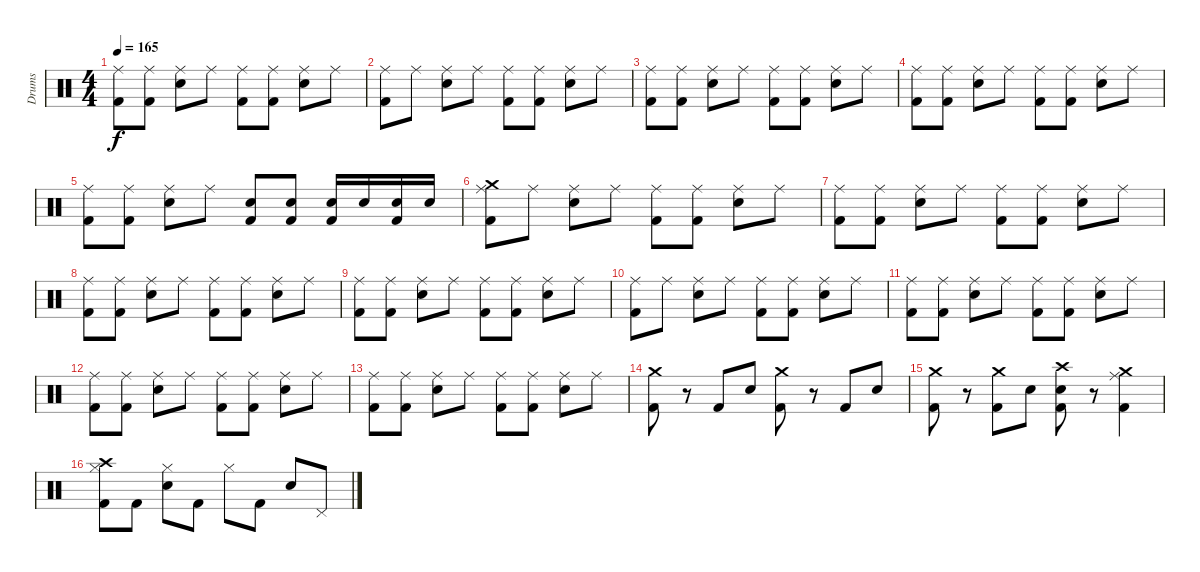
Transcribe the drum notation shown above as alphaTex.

\track ("Drums" "Drums") {instrument percussion}
\staff {score}
\articulation defaults
\ts (4 4)
\tempo 165
\clef neutral
\ks c
("Kick (hit) 2" "Ride (middle)").8{dy f} ("Kick (hit) 2" "Ride (middle)").8 ("Snare (hit) 2" "Ride (middle)").8 "Ride (middle)".8 ("Kick (hit) 2" "Ride (middle)").8 ("Kick (hit) 2" "Ride (middle)").8 ("Snare (hit) 2" "Ride (middle)").8 "Ride (middle)".8 |
("Kick (hit) 2" "Ride (middle)").8 "Ride (middle)".8 ("Snare (hit) 2" "Ride (middle)").8 "Ride (middle)".8 ("Kick (hit) 2" "Ride (middle)").8 ("Kick (hit) 2" "Ride (middle)").8 ("Snare (hit) 2" "Ride (middle)").8 "Ride (middle)".8 |
("Kick (hit) 2" "Ride (middle)").8 ("Kick (hit) 2" "Ride (middle)").8 ("Snare (hit) 2" "Ride (middle)").8 "Ride (middle)".8 ("Kick (hit) 2" "Ride (middle)").8 ("Kick (hit) 2" "Ride (middle)").8 ("Snare (hit) 2" "Ride (middle)").8 "Ride (middle)".8 |
("Kick (hit) 2" "Ride (middle)").8 ("Kick (hit) 2" "Ride (middle)").8 ("Snare (hit) 2" "Ride (middle)").8 "Ride (middle)".8 ("Kick (hit) 2" "Ride (middle)").8 ("Kick (hit) 2" "Ride (middle)").8 ("Snare (hit) 2" "Ride (middle)").8 "Ride (middle)".8 |
("Kick (hit) 2" "Ride (middle)").8 ("Kick (hit) 2" "Ride (middle)").8 ("Snare (hit) 2" "Ride (middle)").8 "Ride (middle)".8 ("Kick (hit) 2" "Snare (hit) 2").8 ("Kick (hit) 2" "Snare (hit) 2").8 ("Kick (hit) 2" "Snare (hit) 2").16 "Snare (hit) 2".16 ("Kick (hit) 2" "Snare (hit) 2").16 "Snare (hit) 2".16 |
("Crash medium (hit)" "Kick (hit) 2" "Ride (middle)").8 "Ride (middle)".8 ("Snare (hit) 2" "Ride (middle)").8 "Ride (middle)".8 ("Kick (hit) 2" "Ride (middle)").8 ("Kick (hit) 2" "Ride (middle)").8 ("Snare (hit) 2" "Ride (middle)").8 "Ride (middle)".8 |
("Kick (hit) 2" "Ride (middle)").8 ("Kick (hit) 2" "Ride (middle)").8 ("Snare (hit) 2" "Ride (middle)").8 "Ride (middle)".8 ("Kick (hit) 2" "Ride (middle)").8 ("Kick (hit) 2" "Ride (middle)").8 ("Snare (hit) 2" "Ride (middle)").8 "Ride (middle)".8 |
("Kick (hit) 2" "Ride (middle)").8 ("Kick (hit) 2" "Ride (middle)").8 ("Snare (hit) 2" "Ride (middle)").8 "Ride (middle)".8 ("Kick (hit) 2" "Ride (middle)").8 ("Kick (hit) 2" "Ride (middle)").8 ("Snare (hit) 2" "Ride (middle)").8 "Ride (middle)".8 |
("Kick (hit) 2" "Ride (middle)").8 ("Kick (hit) 2" "Ride (middle)").8 ("Snare (hit) 2" "Ride (middle)").8 "Ride (middle)".8 ("Kick (hit) 2" "Ride (middle)").8 ("Kick (hit) 2" "Ride (middle)").8 ("Snare (hit) 2" "Ride (middle)").8 "Ride (middle)".8 |
("Kick (hit) 2" "Ride (middle)").8 "Ride (middle)".8 ("Snare (hit) 2" "Ride (middle)").8 "Ride (middle)".8 ("Kick (hit) 2" "Ride (middle)").8 ("Kick (hit) 2" "Ride (middle)").8 ("Snare (hit) 2" "Ride (middle)").8 "Ride (middle)".8 |
("Kick (hit) 2" "Ride (middle)").8 ("Kick (hit) 2" "Ride (middle)").8 ("Snare (hit) 2" "Ride (middle)").8 "Ride (middle)".8 ("Kick (hit) 2" "Ride (middle)").8 ("Kick (hit) 2" "Ride (middle)").8 ("Snare (hit) 2" "Ride (middle)").8 "Ride (middle)".8 |
("Kick (hit) 2" "Ride (middle)").8 ("Kick (hit) 2" "Ride (middle)").8 ("Snare (hit) 2" "Ride (middle)").8 "Ride (middle)".8 ("Kick (hit) 2" "Ride (middle)").8 ("Kick (hit) 2" "Ride (middle)").8 ("Snare (hit) 2" "Ride (middle)").8 "Ride (middle)".8 |
("Kick (hit) 2" "Ride (middle)").8 ("Kick (hit) 2" "Ride (middle)").8 ("Snare (hit) 2" "Ride (middle)").8 "Ride (middle)".8 ("Kick (hit) 2" "Ride (middle)").8 ("Kick (hit) 2" "Ride (middle)").8 ("Snare (hit) 2" "Ride (middle)").8 "Ride (middle)".8 |
("Kick (hit) 2" "Crash medium (hit)").8 r.8 "Kick (hit) 2".8 "Snare (hit) 2".8 ("Kick (hit) 2" "Crash medium (hit)").8 r.8 "Kick (hit) 2".8 "Snare (hit) 2".8 |
("Kick (hit) 2" "Crash medium (hit)").8 r.8 ("Kick (hit) 2" "Crash medium (hit)").8 "Snare (hit) 2".8 ("Kick (hit) 2" "Crash high (hit)" "Snare (hit) 2").8 r.8 ("Crash medium (hit)" "Ride (middle)" "Kick (hit) 2").4 |
("Crash high (hit)" "Kick (hit) 2" "Hi-Hat (closed)").8 "Kick (hit) 2".8 ("Snare (hit) 2" "Hi-Hat (closed)").8 "Kick (hit) 2".8 "Hi-Hat (closed)".8 "Kick (hit) 2".8 "Snare (hit) 2".8 "Pedal Hi-Hat (hit)".8
